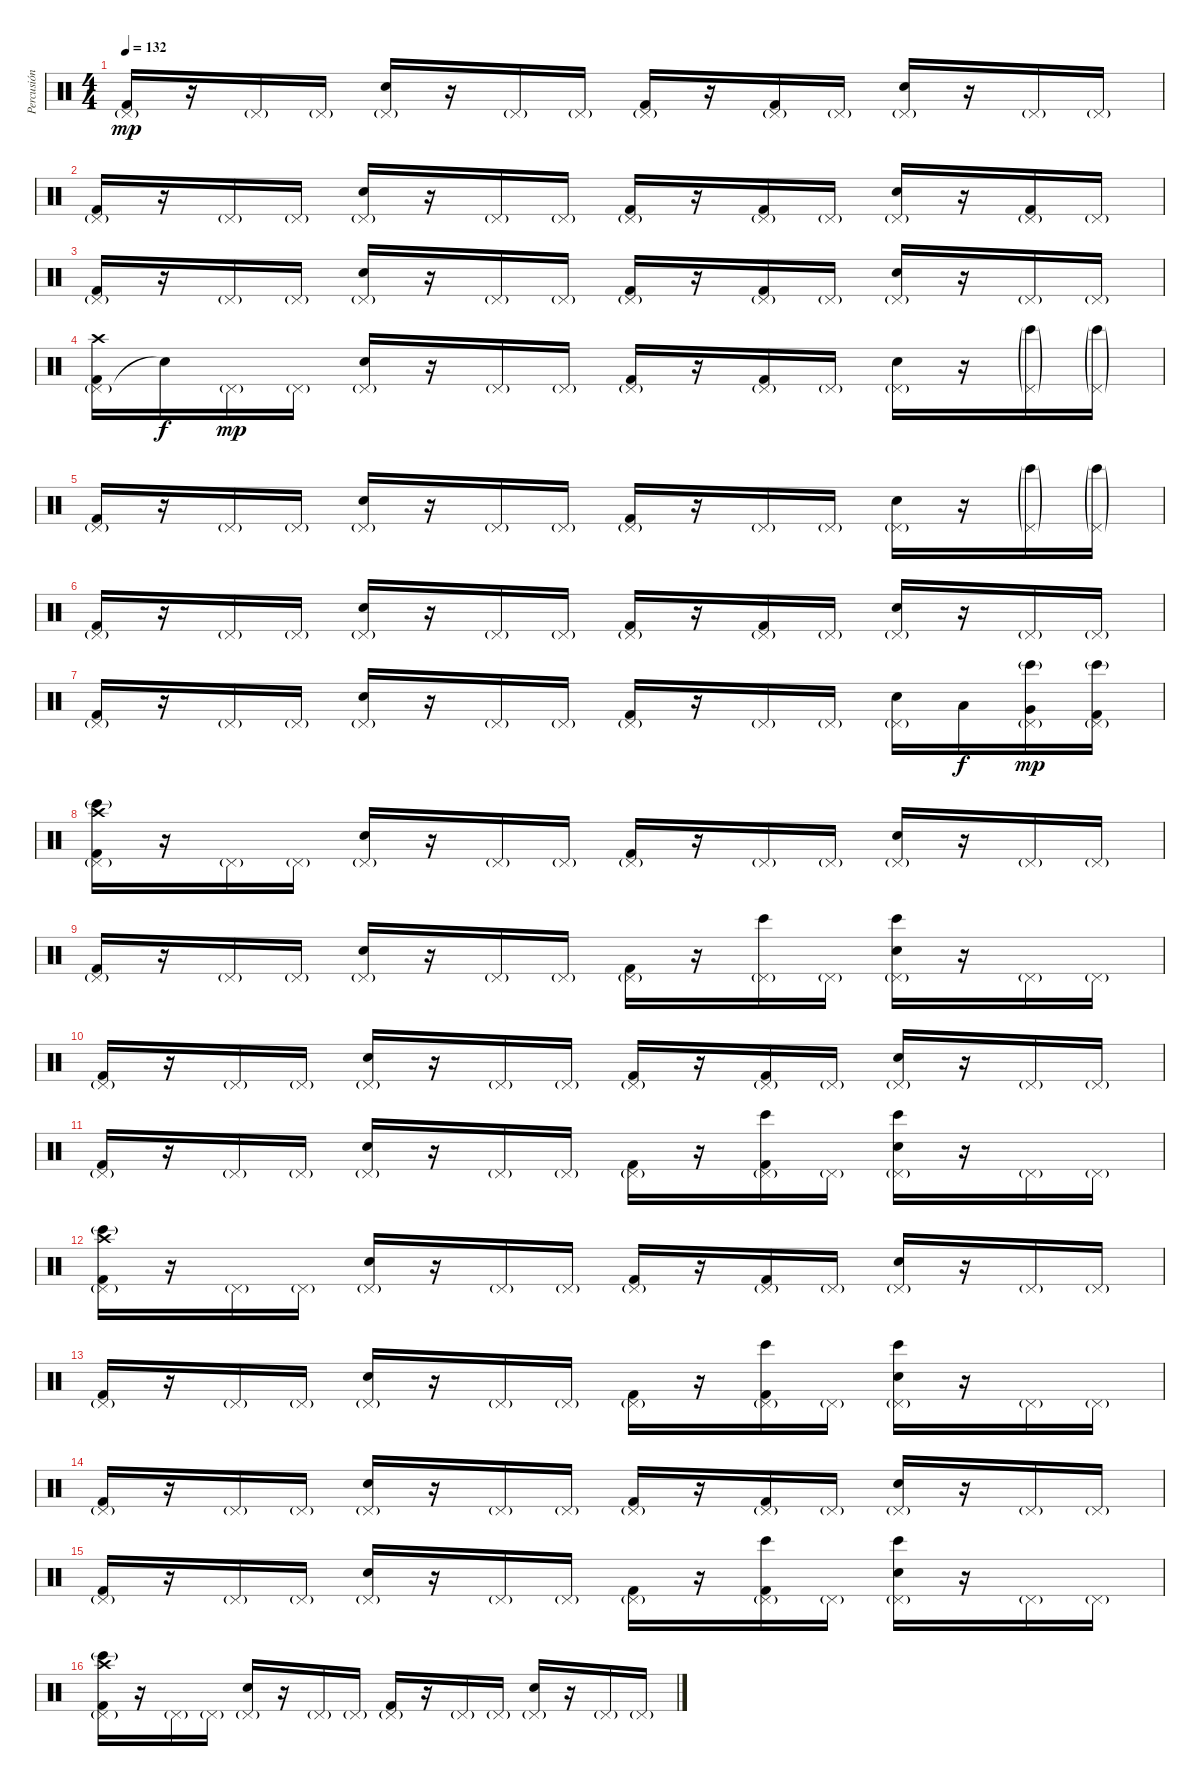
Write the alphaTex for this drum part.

\track ("Percusión" "Percusión") {instrument percussion}
\staff {score}
\articulation defaults
\ts (4 4)
\tempo 132
\clef neutral
\ks c
("Pedal Hi-Hat (hit)"{g} "Kick (hit) 2").16{dy mp} r.16 "Pedal Hi-Hat (hit)"{g}.16 "Pedal Hi-Hat (hit)"{g}.16 ("Pedal Hi-Hat (hit)"{g} "Electric Snare (hit)").16 r.16 "Pedal Hi-Hat (hit)"{g}.16 "Pedal Hi-Hat (hit)"{g}.16 ("Pedal Hi-Hat (hit)"{g} "Kick (hit) 2").16 r.16 ("Pedal Hi-Hat (hit)"{g} "Kick (hit) 2").16 "Pedal Hi-Hat (hit)"{g}.16 ("Pedal Hi-Hat (hit)"{g} "Electric Snare (hit)").16 r.16 "Pedal Hi-Hat (hit)"{g}.16 "Pedal Hi-Hat (hit)"{g}.16 |
("Pedal Hi-Hat (hit)"{g} "Kick (hit) 2").16 r.16 "Pedal Hi-Hat (hit)"{g}.16 "Pedal Hi-Hat (hit)"{g}.16 ("Pedal Hi-Hat (hit)"{g} "Electric Snare (hit)").16 r.16 "Pedal Hi-Hat (hit)"{g}.16 "Pedal Hi-Hat (hit)"{g}.16 ("Pedal Hi-Hat (hit)"{g} "Kick (hit) 2").16 r.16 ("Pedal Hi-Hat (hit)"{g} "Kick (hit) 2").16 "Pedal Hi-Hat (hit)"{g}.16 ("Pedal Hi-Hat (hit)"{g} "Electric Snare (hit)").16 r.16 ("Pedal Hi-Hat (hit)"{g} "Kick (hit) 2").16 "Pedal Hi-Hat (hit)"{g}.16 |
("Pedal Hi-Hat (hit)"{g} "Kick (hit) 2").16 r.16 "Pedal Hi-Hat (hit)"{g}.16 "Pedal Hi-Hat (hit)"{g}.16 ("Pedal Hi-Hat (hit)"{g} "Electric Snare (hit)").16 r.16 "Pedal Hi-Hat (hit)"{g}.16 "Pedal Hi-Hat (hit)"{g}.16 ("Pedal Hi-Hat (hit)"{g} "Kick (hit) 2").16 r.16 ("Pedal Hi-Hat (hit)"{g} "Kick (hit) 2").16 "Pedal Hi-Hat (hit)"{g}.16 ("Pedal Hi-Hat (hit)"{g} "Electric Snare (hit)").16 r.16 "Pedal Hi-Hat (hit)"{g}.16 "Pedal Hi-Hat (hit)"{g}.16 |
("Pedal Hi-Hat (hit)"{g} "Kick (hit) 2" "Crash high (hit)").16 "Snare (hit)"{t}.16{dy f} "Pedal Hi-Hat (hit)"{g}.16{dy mp} "Pedal Hi-Hat (hit)"{g}.16 ("Pedal Hi-Hat (hit)"{g} "Electric Snare (hit)").16 r.16 "Pedal Hi-Hat (hit)"{g}.16 "Pedal Hi-Hat (hit)"{g}.16 ("Pedal Hi-Hat (hit)"{g} "Kick (hit) 2").16 r.16 ("Pedal Hi-Hat (hit)"{g} "Kick (hit) 2").16 "Pedal Hi-Hat (hit)"{g}.16 ("Pedal Hi-Hat (hit)"{g} "Electric Snare (hit)").16 r.16 ("Pedal Hi-Hat (hit)"{g} "Bongo High (hit)"{g}).16 ("Pedal Hi-Hat (hit)"{g} "Bongo High (hit)"{g}).16 |
("Pedal Hi-Hat (hit)"{g} "Kick (hit) 2").16 r.16 "Pedal Hi-Hat (hit)"{g}.16 "Pedal Hi-Hat (hit)"{g}.16 ("Pedal Hi-Hat (hit)"{g} "Electric Snare (hit)").16 r.16 "Pedal Hi-Hat (hit)"{g}.16 "Pedal Hi-Hat (hit)"{g}.16 ("Pedal Hi-Hat (hit)"{g} "Kick (hit) 2").16 r.16 "Pedal Hi-Hat (hit)"{g}.16 "Pedal Hi-Hat (hit)"{g}.16 ("Pedal Hi-Hat (hit)"{g} "Electric Snare (hit)").16 r.16 ("Pedal Hi-Hat (hit)"{g} "Bongo High (hit)"{g}).16 ("Pedal Hi-Hat (hit)"{g} "Bongo High (hit)"{g}).16 |
("Pedal Hi-Hat (hit)"{g} "Kick (hit) 2").16 r.16 "Pedal Hi-Hat (hit)"{g}.16 "Pedal Hi-Hat (hit)"{g}.16 ("Pedal Hi-Hat (hit)"{g} "Electric Snare (hit)").16 r.16 "Pedal Hi-Hat (hit)"{g}.16 "Pedal Hi-Hat (hit)"{g}.16 ("Pedal Hi-Hat (hit)"{g} "Kick (hit) 2").16 r.16 ("Pedal Hi-Hat (hit)"{g} "Kick (hit) 2").16 "Pedal Hi-Hat (hit)"{g}.16 ("Pedal Hi-Hat (hit)"{g} "Electric Snare (hit)").16 r.16 "Pedal Hi-Hat (hit)"{g}.16 "Pedal Hi-Hat (hit)"{g}.16 |
("Pedal Hi-Hat (hit)"{g} "Kick (hit) 2").16 r.16 "Pedal Hi-Hat (hit)"{g}.16 "Pedal Hi-Hat (hit)"{g}.16 ("Pedal Hi-Hat (hit)"{g} "Electric Snare (hit)").16 r.16 "Pedal Hi-Hat (hit)"{g}.16 "Pedal Hi-Hat (hit)"{g}.16 ("Pedal Hi-Hat (hit)"{g} "Kick (hit) 2").16 r.16 "Pedal Hi-Hat (hit)"{g}.16 "Pedal Hi-Hat (hit)"{g}.16 ("Pedal Hi-Hat (hit)"{g} "Electric Snare (hit)").16 "Low Tom (hit)".16{dy f} ("Pedal Hi-Hat (hit)"{g} "Very Low Tom (hit)" "Bongo High (hit)"{g}).16{dy mp} ("Pedal Hi-Hat (hit)"{g} "Kick (hit) 2" "Bongo High (hit)"{g}).16 |
("Pedal Hi-Hat (hit)"{g} "Kick (hit) 2" "Bongo High (hit)"{g} "Crash high (hit)").16 r.16 "Pedal Hi-Hat (hit)"{g}.16 "Pedal Hi-Hat (hit)"{g}.16 ("Pedal Hi-Hat (hit)"{g} "Electric Snare (hit)").16 r.16 "Pedal Hi-Hat (hit)"{g}.16 "Pedal Hi-Hat (hit)"{g}.16 ("Pedal Hi-Hat (hit)"{g} "Kick (hit) 2").16 r.16 "Pedal Hi-Hat (hit)"{g}.16 "Pedal Hi-Hat (hit)"{g}.16 ("Pedal Hi-Hat (hit)"{g} "Electric Snare (hit)").16 r.16 "Pedal Hi-Hat (hit)"{g}.16 "Pedal Hi-Hat (hit)"{g}.16 |
("Pedal Hi-Hat (hit)"{g} "Kick (hit) 2").16 r.16 "Pedal Hi-Hat (hit)"{g}.16 "Pedal Hi-Hat (hit)"{g}.16 ("Pedal Hi-Hat (hit)"{g} "Electric Snare (hit)").16 r.16 "Pedal Hi-Hat (hit)"{g}.16 "Pedal Hi-Hat (hit)"{g}.16 ("Pedal Hi-Hat (hit)"{g} "Kick (hit) 2").16 r.16 ("Pedal Hi-Hat (hit)"{g} "Bongo High (hit)").16 "Pedal Hi-Hat (hit)"{g}.16 ("Pedal Hi-Hat (hit)"{g} "Electric Snare (hit)" "Bongo High (hit)").16 r.16 "Pedal Hi-Hat (hit)"{g}.16 "Pedal Hi-Hat (hit)"{g}.16 |
("Pedal Hi-Hat (hit)"{g} "Kick (hit) 2").16 r.16 "Pedal Hi-Hat (hit)"{g}.16 "Pedal Hi-Hat (hit)"{g}.16 ("Pedal Hi-Hat (hit)"{g} "Electric Snare (hit)").16 r.16 "Pedal Hi-Hat (hit)"{g}.16 "Pedal Hi-Hat (hit)"{g}.16 ("Pedal Hi-Hat (hit)"{g} "Kick (hit) 2").16 r.16 ("Pedal Hi-Hat (hit)"{g} "Kick (hit) 2").16 "Pedal Hi-Hat (hit)"{g}.16 ("Pedal Hi-Hat (hit)"{g} "Electric Snare (hit)").16 r.16 "Pedal Hi-Hat (hit)"{g}.16 "Pedal Hi-Hat (hit)"{g}.16 |
("Pedal Hi-Hat (hit)"{g} "Kick (hit) 2").16 r.16 "Pedal Hi-Hat (hit)"{g}.16 "Pedal Hi-Hat (hit)"{g}.16 ("Pedal Hi-Hat (hit)"{g} "Electric Snare (hit)").16 r.16 "Pedal Hi-Hat (hit)"{g}.16 "Pedal Hi-Hat (hit)"{g}.16 ("Pedal Hi-Hat (hit)"{g} "Kick (hit) 2").16 r.16 ("Pedal Hi-Hat (hit)"{g} "Kick (hit) 2" "Bongo High (hit)").16 "Pedal Hi-Hat (hit)"{g}.16 ("Pedal Hi-Hat (hit)"{g} "Electric Snare (hit)" "Bongo High (hit)").16 r.16 "Pedal Hi-Hat (hit)"{g}.16 "Pedal Hi-Hat (hit)"{g}.16 |
("Pedal Hi-Hat (hit)"{g} "Kick (hit) 2" "Bongo High (hit)"{g} "Crash high (hit)").16 r.16 "Pedal Hi-Hat (hit)"{g}.16 "Pedal Hi-Hat (hit)"{g}.16 ("Pedal Hi-Hat (hit)"{g} "Electric Snare (hit)").16 r.16 "Pedal Hi-Hat (hit)"{g}.16 "Pedal Hi-Hat (hit)"{g}.16 ("Pedal Hi-Hat (hit)"{g} "Kick (hit) 2").16 r.16 ("Pedal Hi-Hat (hit)"{g} "Kick (hit) 2").16 "Pedal Hi-Hat (hit)"{g}.16 ("Pedal Hi-Hat (hit)"{g} "Electric Snare (hit)").16 r.16 "Pedal Hi-Hat (hit)"{g}.16 "Pedal Hi-Hat (hit)"{g}.16 |
("Pedal Hi-Hat (hit)"{g} "Kick (hit) 2").16 r.16 "Pedal Hi-Hat (hit)"{g}.16 "Pedal Hi-Hat (hit)"{g}.16 ("Pedal Hi-Hat (hit)"{g} "Electric Snare (hit)").16 r.16 "Pedal Hi-Hat (hit)"{g}.16 "Pedal Hi-Hat (hit)"{g}.16 ("Pedal Hi-Hat (hit)"{g} "Kick (hit) 2").16 r.16 ("Pedal Hi-Hat (hit)"{g} "Kick (hit) 2" "Bongo High (hit)").16 "Pedal Hi-Hat (hit)"{g}.16 ("Pedal Hi-Hat (hit)"{g} "Electric Snare (hit)" "Bongo High (hit)").16 r.16 "Pedal Hi-Hat (hit)"{g}.16 "Pedal Hi-Hat (hit)"{g}.16 |
("Pedal Hi-Hat (hit)"{g} "Kick (hit) 2").16 r.16 "Pedal Hi-Hat (hit)"{g}.16 "Pedal Hi-Hat (hit)"{g}.16 ("Pedal Hi-Hat (hit)"{g} "Electric Snare (hit)").16 r.16 "Pedal Hi-Hat (hit)"{g}.16 "Pedal Hi-Hat (hit)"{g}.16 ("Pedal Hi-Hat (hit)"{g} "Kick (hit) 2").16 r.16 ("Pedal Hi-Hat (hit)"{g} "Kick (hit) 2").16 "Pedal Hi-Hat (hit)"{g}.16 ("Pedal Hi-Hat (hit)"{g} "Electric Snare (hit)").16 r.16 "Pedal Hi-Hat (hit)"{g}.16 "Pedal Hi-Hat (hit)"{g}.16 |
("Pedal Hi-Hat (hit)"{g} "Kick (hit) 2").16 r.16 "Pedal Hi-Hat (hit)"{g}.16 "Pedal Hi-Hat (hit)"{g}.16 ("Pedal Hi-Hat (hit)"{g} "Electric Snare (hit)").16 r.16 "Pedal Hi-Hat (hit)"{g}.16 "Pedal Hi-Hat (hit)"{g}.16 ("Pedal Hi-Hat (hit)"{g} "Kick (hit) 2").16 r.16 ("Pedal Hi-Hat (hit)"{g} "Kick (hit) 2" "Bongo High (hit)").16 "Pedal Hi-Hat (hit)"{g}.16 ("Pedal Hi-Hat (hit)"{g} "Electric Snare (hit)" "Bongo High (hit)").16 r.16 "Pedal Hi-Hat (hit)"{g}.16 "Pedal Hi-Hat (hit)"{g}.16 |
("Pedal Hi-Hat (hit)"{g} "Kick (hit) 2" "Bongo High (hit)"{g} "Crash high (hit)").16 r.16 "Pedal Hi-Hat (hit)"{g}.16 "Pedal Hi-Hat (hit)"{g}.16 ("Pedal Hi-Hat (hit)"{g} "Electric Snare (hit)").16 r.16 "Pedal Hi-Hat (hit)"{g}.16 "Pedal Hi-Hat (hit)"{g}.16 ("Pedal Hi-Hat (hit)"{g} "Kick (hit) 2").16 r.16 "Pedal Hi-Hat (hit)"{g}.16 "Pedal Hi-Hat (hit)"{g}.16 ("Pedal Hi-Hat (hit)"{g} "Electric Snare (hit)").16 r.16 "Pedal Hi-Hat (hit)"{g}.16 "Pedal Hi-Hat (hit)"{g}.16
